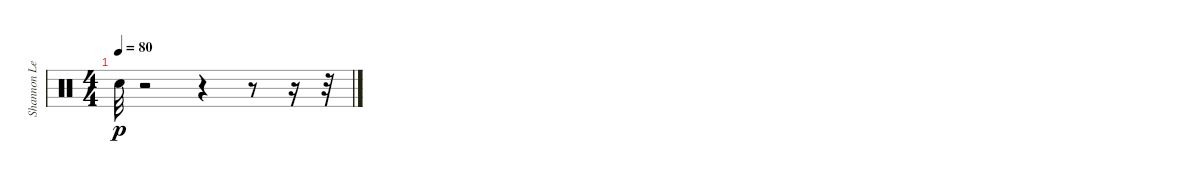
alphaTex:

\track ("Shannon Leto (Drums)" "Shannon Le") {instrument percussion}
\staff {score}
\articulation defaults
\ts (4 4)
\tempo 80
\clef neutral
\ks c "Electric Snare (hit)".32{dy p}
r.2 r.4 r.8 r.16 r.32
